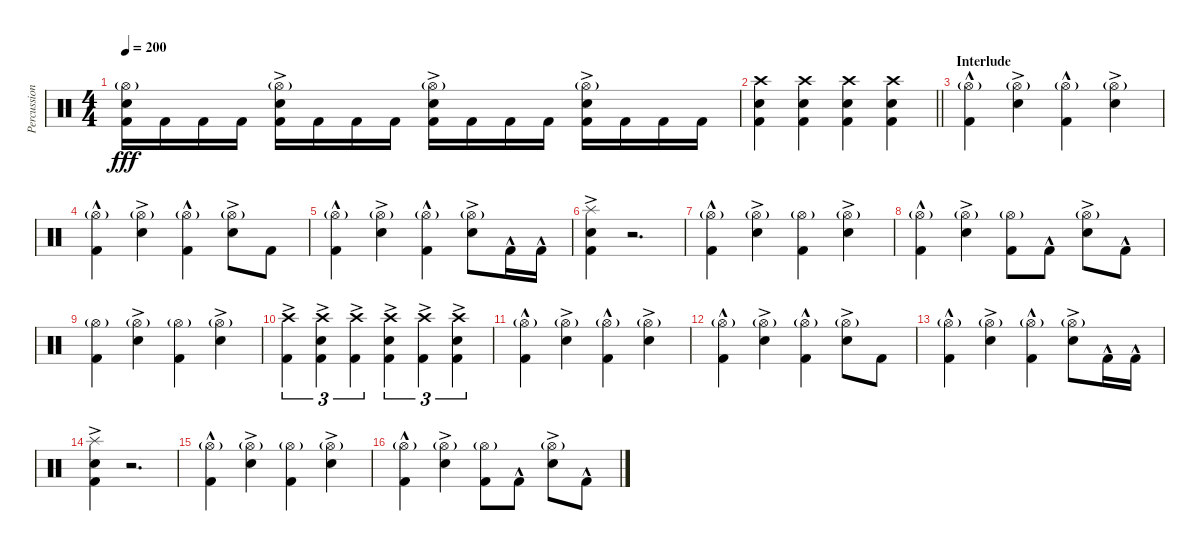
\track ("Percussion , Drums - Travis Smith" "Percussion") {instrument percussion}
\staff {score}
\articulation defaults
\ts (4 4)
\tempo 200
\clef neutral
\ks c
("Hi-Hat (open)"{g} "Electric Snare (hit)" "Kick (hit) 2").16{dy fff} "Kick (hit) 2".16 "Kick (hit) 2".16 "Kick (hit) 2".16 ("Hi-Hat (open)"{g} "Electric Snare (hit)"{ac} "Kick (hit) 2").16 "Kick (hit) 2".16 "Kick (hit) 2".16 "Kick (hit) 2".16 ("Hi-Hat (open)"{g} "Electric Snare (hit)"{ac} "Kick (hit) 2").16 "Kick (hit) 2".16 "Kick (hit) 2".16 "Kick (hit) 2".16 ("Hi-Hat (open)"{g} "Electric Snare (hit)"{ac} "Kick (hit) 2").16 "Kick (hit) 2".16 "Kick (hit) 2".16 "Kick (hit) 2".16 |
\barLineRight lightlight
("Crash high (hit)" "Electric Snare (hit)" "Kick (hit) 2").4 ("Crash high (hit)" "Electric Snare (hit)" "Kick (hit) 2").4 ("Crash high (hit)" "Electric Snare (hit)" "Kick (hit) 2").4 ("Crash high (hit)" "Electric Snare (hit)" "Kick (hit) 2").4 |
\section ("" "Interlude")
("Hi-Hat (open)"{g} "Kick (hit) 2"{hac}).4 ("Hi-Hat (open)"{g} "Electric Snare (hit)"{ac}).4 ("Hi-Hat (open)"{g} "Kick (hit) 2"{hac}).4 ("Hi-Hat (open)"{g} "Electric Snare (hit)"{ac}).4 |
("Hi-Hat (open)"{g} "Kick (hit) 2"{hac}).4 ("Hi-Hat (open)"{g} "Electric Snare (hit)"{ac}).4 ("Hi-Hat (open)"{g} "Kick (hit) 2"{hac}).4 ("Hi-Hat (open)"{g} "Electric Snare (hit)"{ac}).8 "Kick (hit) 2".8 |
("Hi-Hat (open)"{g} "Kick (hit) 2"{hac}).4 ("Hi-Hat (open)"{g} "Electric Snare (hit)"{ac}).4 ("Hi-Hat (open)"{g} "Kick (hit) 2"{hac}).4 ("Hi-Hat (open)"{g} "Electric Snare (hit)"{ac}).8 "Kick (hit) 2"{hac}.16 "Kick (hit) 2"{hac}.16 |
("Splash (hit)" "Electric Snare (hit)"{ac} "Kick (hit) 2").4 r.2{d} |
("Hi-Hat (open)"{g} "Kick (hit) 2"{hac}).4 ("Hi-Hat (open)"{g} "Electric Snare (hit)"{ac}).4 ("Hi-Hat (open)"{g} "Kick (hit) 2").4 ("Hi-Hat (open)"{g} "Electric Snare (hit)"{ac}).4 |
("Hi-Hat (open)"{g} "Kick (hit) 2"{hac}).4 ("Hi-Hat (open)"{g} "Electric Snare (hit)"{ac}).4 ("Hi-Hat (open)"{g} "Kick (hit) 2").8 "Kick (hit) 2"{hac}.8 ("Hi-Hat (open)"{g} "Electric Snare (hit)"{ac}).8 "Kick (hit) 2"{hac}.8 |
("Hi-Hat (open)"{g} "Kick (hit) 2").4 ("Hi-Hat (open)"{g} "Electric Snare (hit)"{ac}).4 ("Hi-Hat (open)"{g} "Kick (hit) 2").4 ("Hi-Hat (open)"{g} "Electric Snare (hit)"{ac}).4 |
("Crash high (hit)"{ac} "Kick (hit) 2").4{tu (3 2)} ("Crash high (hit)"{ac} "Electric Snare (hit)"{ac} "Kick (hit) 2").4{tu (3 2)} ("Crash high (hit)"{ac} "Kick (hit) 2").4{tu (3 2)} ("Crash high (hit)"{ac} "Electric Snare (hit)"{ac} "Kick (hit) 2").4{tu (3 2)} ("Crash high (hit)"{ac} "Kick (hit) 2").4{tu (3 2)} ("Crash high (hit)"{ac} "Electric Snare (hit)"{ac} "Kick (hit) 2").4{tu (3 2)} |
("Hi-Hat (open)"{g} "Kick (hit) 2"{hac}).4 ("Hi-Hat (open)"{g} "Electric Snare (hit)"{ac}).4 ("Hi-Hat (open)"{g} "Kick (hit) 2"{hac}).4 ("Hi-Hat (open)"{g} "Electric Snare (hit)"{ac}).4 |
("Hi-Hat (open)"{g} "Kick (hit) 2"{hac}).4 ("Hi-Hat (open)"{g} "Electric Snare (hit)"{ac}).4 ("Hi-Hat (open)"{g} "Kick (hit) 2"{hac}).4 ("Hi-Hat (open)"{g} "Electric Snare (hit)"{ac}).8 "Kick (hit) 2".8 |
("Hi-Hat (open)"{g} "Kick (hit) 2"{hac}).4 ("Hi-Hat (open)"{g} "Electric Snare (hit)"{ac}).4 ("Hi-Hat (open)"{g} "Kick (hit) 2"{hac}).4 ("Hi-Hat (open)"{g} "Electric Snare (hit)"{ac}).8 "Kick (hit) 2"{hac}.16 "Kick (hit) 2"{hac}.16 |
("Splash (hit)" "Electric Snare (hit)"{ac} "Kick (hit) 2").4 r.2{d} |
("Hi-Hat (open)"{g} "Kick (hit) 2"{hac}).4 ("Hi-Hat (open)"{g} "Electric Snare (hit)"{ac}).4 ("Hi-Hat (open)"{g} "Kick (hit) 2").4 ("Hi-Hat (open)"{g} "Electric Snare (hit)"{ac}).4 |
("Hi-Hat (open)"{g} "Kick (hit) 2"{hac}).4 ("Hi-Hat (open)"{g} "Electric Snare (hit)"{ac}).4 ("Hi-Hat (open)"{g} "Kick (hit) 2").8 "Kick (hit) 2"{hac}.8 ("Hi-Hat (open)"{g} "Electric Snare (hit)"{ac}).8 "Kick (hit) 2"{hac}.8
